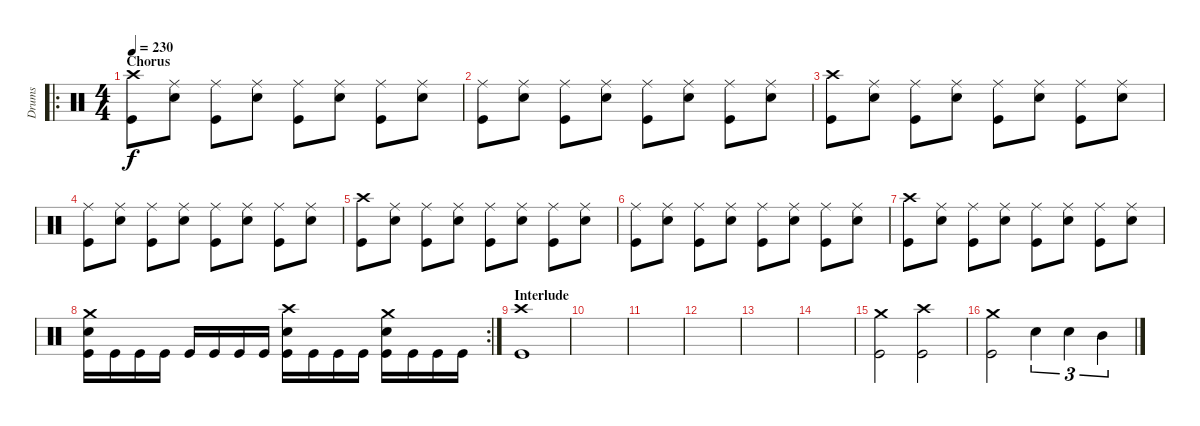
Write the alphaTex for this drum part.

\track ("Drums" "Drums") {instrument percussion}
\staff {score}
\articulation defaults
\ro
\ts (4 4)
\section ("" "Chorus")
\tempo 230
\clef neutral
\ks c
("Crash high (hit)" "Kick (hit)").8{dy f} ("Ride (middle)" "Electric Snare (hit)").8 ("Ride (middle)" "Kick (hit)").8 ("Ride (middle)" "Electric Snare (hit)").8 ("Ride (middle)" "Kick (hit)").8 ("Ride (middle)" "Electric Snare (hit)").8 ("Ride (middle)" "Kick (hit)").8 ("Ride (middle)" "Electric Snare (hit)").8 |
("Ride (middle)" "Kick (hit)").8 ("Ride (middle)" "Electric Snare (hit)").8 ("Ride (middle)" "Kick (hit)").8 ("Ride (middle)" "Electric Snare (hit)").8 ("Ride (middle)" "Kick (hit)").8 ("Ride (middle)" "Electric Snare (hit)").8 ("Ride (middle)" "Kick (hit)").8 ("Ride (middle)" "Electric Snare (hit)").8 |
("Crash high (hit)" "Kick (hit)").8 ("Ride (middle)" "Electric Snare (hit)").8 ("Ride (middle)" "Kick (hit)").8 ("Ride (middle)" "Electric Snare (hit)").8 ("Ride (middle)" "Kick (hit)").8 ("Ride (middle)" "Electric Snare (hit)").8 ("Ride (middle)" "Kick (hit)").8 ("Ride (middle)" "Electric Snare (hit)").8 |
("Ride (middle)" "Kick (hit)").8 ("Ride (middle)" "Electric Snare (hit)").8 ("Ride (middle)" "Kick (hit)").8 ("Ride (middle)" "Electric Snare (hit)").8 ("Ride (middle)" "Kick (hit)").8 ("Ride (middle)" "Electric Snare (hit)").8 ("Ride (middle)" "Kick (hit)").8 ("Ride (middle)" "Electric Snare (hit)").8 |
("Crash high (hit)" "Kick (hit)").8 ("Ride (middle)" "Electric Snare (hit)").8 ("Ride (middle)" "Kick (hit)").8 ("Ride (middle)" "Electric Snare (hit)").8 ("Ride (middle)" "Kick (hit)").8 ("Ride (middle)" "Electric Snare (hit)").8 ("Ride (middle)" "Kick (hit)").8 ("Ride (middle)" "Electric Snare (hit)").8 |
("Ride (middle)" "Kick (hit)").8 ("Ride (middle)" "Electric Snare (hit)").8 ("Ride (middle)" "Kick (hit)").8 ("Ride (middle)" "Electric Snare (hit)").8 ("Ride (middle)" "Kick (hit)").8 ("Ride (middle)" "Electric Snare (hit)").8 ("Ride (middle)" "Kick (hit)").8 ("Ride (middle)" "Electric Snare (hit)").8 |
("Crash high (hit)" "Kick (hit)").8 ("Ride (middle)" "Electric Snare (hit)").8 ("Ride (middle)" "Kick (hit)").8 ("Ride (middle)" "Electric Snare (hit)").8 ("Ride (middle)" "Kick (hit)").8 ("Ride (middle)" "Electric Snare (hit)").8 ("Ride (middle)" "Kick (hit)").8 ("Ride (middle)" "Electric Snare (hit)").8 |
\rc 2
("Crash medium (hit)" "Electric Snare (hit)" "Kick (hit)").16 "Kick (hit)".16 "Kick (hit)".16 "Kick (hit)".16 "Kick (hit)".16 "Kick (hit)".16 "Kick (hit)".16 "Kick (hit)".16 ("Crash high (hit)" "Electric Snare (hit)" "Kick (hit)").16 "Kick (hit)".16 "Kick (hit)".16 "Kick (hit)".16 ("Crash medium (hit)" "Electric Snare (hit)" "Kick (hit)").16 "Kick (hit)".16 "Kick (hit)".16 "Kick (hit)".16 |
\section ("" "Interlude")
("Crash high (hit)" "Kick (hit)").1 |
|
|
|
|
|
("Crash medium (hit)" "Kick (hit)").2 ("Crash high (hit)" "Kick (hit)").2 |
("Crash medium (hit)" "Kick (hit)").2 "Electric Snare (hit)".4{tu (3 2)} "Electric Snare (hit)".4{tu (3 2)} "Mid Tom (hit)".4{tu (3 2)}
